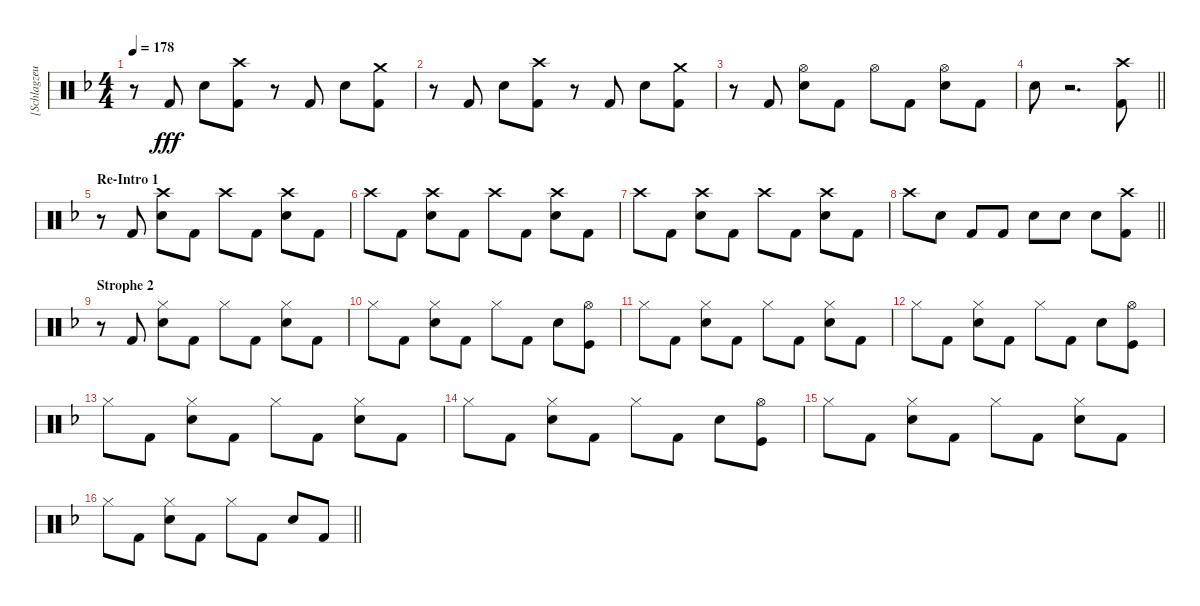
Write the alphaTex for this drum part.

\track ("[Schlagzeug]" "[Schlagzeu") {instrument percussion}
\staff {score}
\articulation defaults
\ts (4 4)
\tempo 178
\clef neutral
\ks dminor
r.8{dy fff} "Kick (hit) 2".8 "Electric Snare (hit)".8 ("Crash high (hit)" "Kick (hit) 2").8 r.8 "Kick (hit) 2".8 "Electric Snare (hit)".8 ("Crash medium (hit)" "Kick (hit) 2").8 |
r.8 "Kick (hit) 2".8 "Electric Snare (hit)".8 ("Crash high (hit)" "Kick (hit) 2").8 r.8 "Kick (hit) 2".8 "Electric Snare (hit)".8 ("Crash medium (hit)" "Kick (hit) 2").8 |
r.8 "Kick (hit) 2".8 ("Hi-Hat (open)" "Electric Snare (hit)").8 "Kick (hit) 2".8 "Hi-Hat (open)".8 "Kick (hit) 2".8 ("Hi-Hat (open)" "Electric Snare (hit)").8 "Kick (hit) 2".8 |
\barLineRight lightlight "Electric Snare (hit)".8
r.2{d} ("Crash high (hit)" "Kick (hit) 2").8 |
\section ("" "Re-Intro 1")
r.8 "Kick (hit) 2".8 ("Crash high (hit)" "Electric Snare (hit)").8 "Kick (hit) 2".8 "Crash high (hit)".8 "Kick (hit) 2".8 ("Crash high (hit)" "Electric Snare (hit)").8 "Kick (hit) 2".8 |
"Crash high (hit)".8 "Kick (hit) 2".8 ("Crash high (hit)" "Electric Snare (hit)").8 "Kick (hit) 2".8 "Crash high (hit)".8 "Kick (hit) 2".8 ("Crash high (hit)" "Electric Snare (hit)").8 "Kick (hit) 2".8 |
"Crash high (hit)".8 "Kick (hit) 2".8 ("Crash high (hit)" "Electric Snare (hit)").8 "Kick (hit) 2".8 "Crash high (hit)".8 "Kick (hit) 2".8 ("Crash high (hit)" "Electric Snare (hit)").8 "Kick (hit) 2".8 |
\barLineRight lightlight "Crash high (hit)".8 "Electric Snare (hit)".8 "Kick (hit) 2".8 "Kick (hit) 2".8 "Electric Snare (hit)".8 "Electric Snare (hit)".8 "Electric Snare (hit)".8
("Crash high (hit)" "Kick (hit) 2").8 |
\section ("" "Strophe 2")
r.8 "Kick (hit) 2".8 ("Hi-Hat (closed)" "Electric Snare (hit)").8 "Kick (hit) 2".8 "Hi-Hat (closed)".8 "Kick (hit) 2".8 ("Hi-Hat (closed)" "Electric Snare (hit)").8 "Kick (hit) 2".8 |
"Hi-Hat (closed)".8 "Kick (hit) 2".8 ("Hi-Hat (closed)" "Electric Snare (hit)").8 "Kick (hit) 2".8 "Hi-Hat (closed)".8 "Kick (hit) 2".8 "Electric Snare (hit)".8 ("Hi-Hat (open)" "Kick (hit)").8 |
"Hi-Hat (closed)".8 "Kick (hit) 2".8 ("Hi-Hat (closed)" "Electric Snare (hit)").8 "Kick (hit) 2".8 "Hi-Hat (closed)".8 "Kick (hit) 2".8 ("Hi-Hat (closed)" "Electric Snare (hit)").8 "Kick (hit) 2".8 |
"Hi-Hat (closed)".8 "Kick (hit) 2".8 ("Hi-Hat (closed)" "Electric Snare (hit)").8 "Kick (hit) 2".8 "Hi-Hat (closed)".8 "Kick (hit) 2".8 "Electric Snare (hit)".8 ("Hi-Hat (open)" "Kick (hit)").8 |
"Hi-Hat (closed)".8 "Kick (hit) 2".8 ("Hi-Hat (closed)" "Electric Snare (hit)").8 "Kick (hit) 2".8 "Hi-Hat (closed)".8 "Kick (hit) 2".8 ("Hi-Hat (closed)" "Electric Snare (hit)").8 "Kick (hit) 2".8 |
"Hi-Hat (closed)".8 "Kick (hit) 2".8 ("Hi-Hat (closed)" "Electric Snare (hit)").8 "Kick (hit) 2".8 "Hi-Hat (closed)".8 "Kick (hit) 2".8 "Electric Snare (hit)".8 ("Hi-Hat (open)" "Kick (hit)").8 |
"Hi-Hat (closed)".8 "Kick (hit) 2".8 ("Hi-Hat (closed)" "Electric Snare (hit)").8 "Kick (hit) 2".8 "Hi-Hat (closed)".8 "Kick (hit) 2".8 ("Hi-Hat (closed)" "Electric Snare (hit)").8 "Kick (hit) 2".8 |
\barLineRight lightlight "Hi-Hat (closed)".8 "Kick (hit) 2".8
("Hi-Hat (closed)" "Electric Snare (hit)").8 "Kick (hit) 2".8 "Hi-Hat (closed)".8 "Kick (hit) 2".8 "Electric Snare (hit)".8 "Kick (hit) 2".8
